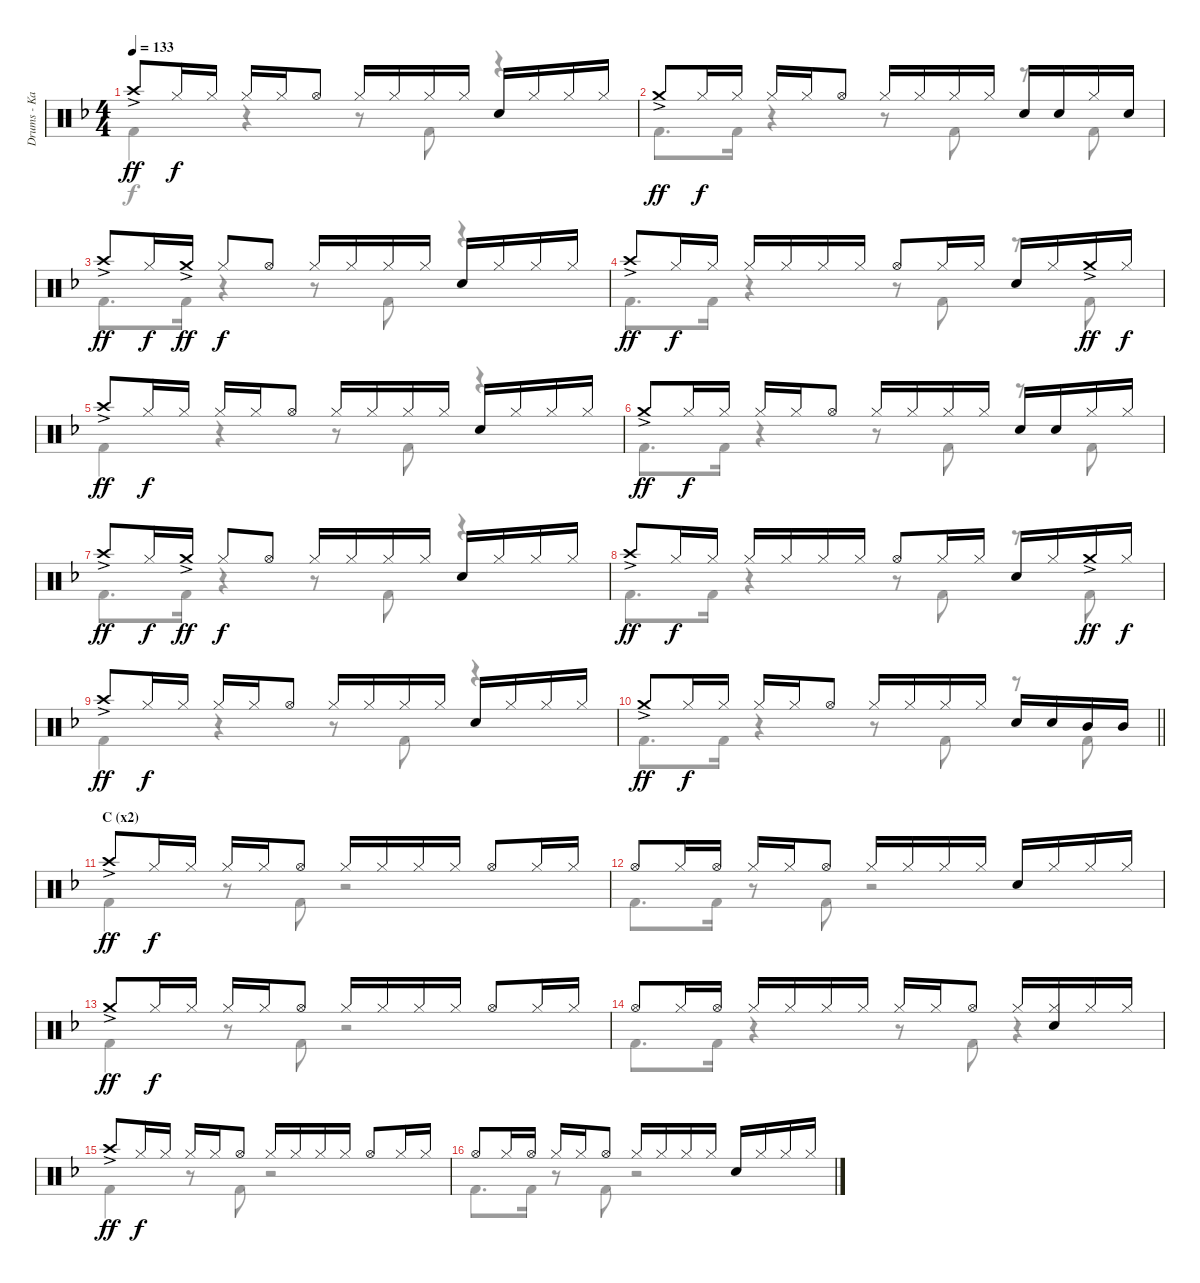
\track ("Drums - Kai" "Drums - Ka") {instrument percussion}
\staff {score}
\articulation defaults
\voice
\ts (4 4)
\tempo 133
\clef neutral
\ks f "Crash high (hit)"{ac}.8{dy ff} "Hi-Hat (closed)".16{dy f} "Hi-Hat (closed)".16 "Hi-Hat (closed)".16 "Hi-Hat (closed)".16 "Hi-Hat (open)".8 "Hi-Hat (closed)".16 "Hi-Hat (closed)".16 "Hi-Hat (closed)".16 "Hi-Hat (closed)".16 "Snare (hit) 2".16 "Hi-Hat (closed)".16 "Hi-Hat (closed)".16 "Hi-Hat (closed)".16
|
"Crash medium (hit)"{ac}.8{dy ff} "Hi-Hat (closed)".16{dy f} "Hi-Hat (closed)".16 "Hi-Hat (closed)".16 "Hi-Hat (closed)".16 "Hi-Hat (open)".8 "Hi-Hat (closed)".16 "Hi-Hat (closed)".16 "Hi-Hat (closed)".16 "Hi-Hat (closed)".16 "Snare (hit) 2".16 "Snare (hit) 2".16 "Hi-Hat (closed)".16 "Snare (hit) 2".16 |
"Crash high (hit)"{ac}.8{dy ff} "Hi-Hat (closed)".16{dy f} "Crash medium (hit)"{ac}.16{dy ff} "Hi-Hat (closed)".8{dy f} "Hi-Hat (open)".8 "Hi-Hat (closed)".16 "Hi-Hat (closed)".16 "Hi-Hat (closed)".16 "Hi-Hat (closed)".16 "Snare (hit) 2".16 "Hi-Hat (closed)".16 "Hi-Hat (closed)".16 "Hi-Hat (closed)".16 |
"Crash high (hit)"{ac}.8{dy ff} "Hi-Hat (closed)".16{dy f} "Hi-Hat (closed)".16 "Hi-Hat (closed)".16 "Hi-Hat (closed)".16 "Hi-Hat (closed)".16 "Hi-Hat (closed)".16 "Hi-Hat (open)".8 "Hi-Hat (closed)".16 "Hi-Hat (closed)".16 "Snare (hit) 2".16 "Hi-Hat (closed)".16 "Crash medium (hit)"{ac}.16{dy ff} "Hi-Hat (closed)".16{dy f} |
"Crash high (hit)"{ac}.8{dy ff} "Hi-Hat (closed)".16{dy f} "Hi-Hat (closed)".16 "Hi-Hat (closed)".16 "Hi-Hat (closed)".16 "Hi-Hat (open)".8 "Hi-Hat (closed)".16 "Hi-Hat (closed)".16 "Hi-Hat (closed)".16 "Hi-Hat (closed)".16 "Snare (hit) 2".16 "Hi-Hat (closed)".16 "Hi-Hat (closed)".16 "Hi-Hat (closed)".16 |
"Crash medium (hit)"{ac}.8{dy ff} "Hi-Hat (closed)".16{dy f} "Hi-Hat (closed)".16 "Hi-Hat (closed)".16 "Hi-Hat (closed)".16 "Hi-Hat (open)".8 "Hi-Hat (closed)".16 "Hi-Hat (closed)".16 "Hi-Hat (closed)".16 "Hi-Hat (closed)".16 "Snare (hit) 2".16 "Snare (hit) 2".16 "Hi-Hat (closed)".16 "Hi-Hat (closed)".16 |
"Crash high (hit)"{ac}.8{dy ff} "Hi-Hat (closed)".16{dy f} "Crash medium (hit)"{ac}.16{dy ff} "Hi-Hat (closed)".8{dy f} "Hi-Hat (open)".8 "Hi-Hat (closed)".16 "Hi-Hat (closed)".16 "Hi-Hat (closed)".16 "Hi-Hat (closed)".16 "Snare (hit) 2".16 "Hi-Hat (closed)".16 "Hi-Hat (closed)".16 "Hi-Hat (closed)".16 |
"Crash high (hit)"{ac}.8{dy ff} "Hi-Hat (closed)".16{dy f} "Hi-Hat (closed)".16 "Hi-Hat (closed)".16 "Hi-Hat (closed)".16 "Hi-Hat (closed)".16 "Hi-Hat (closed)".16 "Hi-Hat (open)".8 "Hi-Hat (closed)".16 "Hi-Hat (closed)".16 "Snare (hit) 2".16 "Hi-Hat (closed)".16 "Crash medium (hit)"{ac}.16{dy ff} "Hi-Hat (closed)".16{dy f} |
"Crash high (hit)"{ac}.8{dy ff} "Hi-Hat (closed)".16{dy f} "Hi-Hat (closed)".16 "Hi-Hat (closed)".16 "Hi-Hat (closed)".16 "Hi-Hat (open)".8 "Hi-Hat (closed)".16 "Hi-Hat (closed)".16 "Hi-Hat (closed)".16 "Hi-Hat (closed)".16 "Snare (hit) 2".16 "Hi-Hat (closed)".16 "Hi-Hat (closed)".16 "Hi-Hat (closed)".16 |
\barLineRight lightlight "Crash medium (hit)"{ac}.8{dy ff} "Hi-Hat (closed)".16{dy f} "Hi-Hat (closed)".16 "Hi-Hat (closed)".16 "Hi-Hat (closed)".16 "Hi-Hat (open)".8 "Hi-Hat (closed)".16 "Hi-Hat (closed)".16 "Hi-Hat (closed)".16 "Hi-Hat (closed)".16 "Snare (hit) 2".16 "Snare (hit) 2".16 "Mid Tom (hit)".16 "Mid Tom (hit)".16
|
\section ("" "C (x2)")
"Crash high (hit)"{ac}.8{dy ff} "Hi-Hat (closed)".16{dy f} "Hi-Hat (closed)".16 "Hi-Hat (closed)".16 "Hi-Hat (closed)".16 "Hi-Hat (open)".8 "Hi-Hat (closed)".16 "Hi-Hat (closed)".16 "Hi-Hat (closed)".16 "Hi-Hat (closed)".16 "Hi-Hat (open)".8 "Hi-Hat (closed)".16 "Hi-Hat (closed)".16 |
"Hi-Hat (open)".8 "Hi-Hat (closed)".16 "Hi-Hat (open)".16 "Hi-Hat (closed)".16 "Hi-Hat (closed)".16 "Hi-Hat (open)".8 "Hi-Hat (closed)".16 "Hi-Hat (closed)".16 "Hi-Hat (closed)".16 "Hi-Hat (closed)".16 "Snare (hit) 2".16 "Hi-Hat (closed)".16 "Hi-Hat (closed)".16 "Hi-Hat (closed)".16 |
"Crash medium (hit)"{ac}.8{dy ff} "Hi-Hat (closed)".16{dy f} "Hi-Hat (closed)".16 "Hi-Hat (closed)".16 "Hi-Hat (closed)".16 "Hi-Hat (open)".8 "Hi-Hat (closed)".16 "Hi-Hat (closed)".16 "Hi-Hat (closed)".16 "Hi-Hat (closed)".16 "Hi-Hat (open)".8 "Hi-Hat (closed)".16 "Hi-Hat (closed)".16 |
"Hi-Hat (open)".8 "Hi-Hat (closed)".16 "Hi-Hat (open)".16 "Hi-Hat (closed)".16 "Hi-Hat (closed)".16 "Hi-Hat (closed)".16 "Hi-Hat (closed)".16 "Hi-Hat (closed)".16 "Hi-Hat (closed)".16 "Hi-Hat (open)".8 "Hi-Hat (closed)".16 ("Hi-Hat (closed)" "Snare (hit) 2").16 "Hi-Hat (closed)".16 "Hi-Hat (closed)".16 |
"Crash high (hit)"{ac}.8{dy ff} "Hi-Hat (closed)".16{dy f} "Hi-Hat (closed)".16 "Hi-Hat (closed)".16 "Hi-Hat (closed)".16 "Hi-Hat (open)".8 "Hi-Hat (closed)".16 "Hi-Hat (closed)".16 "Hi-Hat (closed)".16 "Hi-Hat (closed)".16 "Hi-Hat (open)".8 "Hi-Hat (closed)".16 "Hi-Hat (closed)".16 |
"Hi-Hat (open)".8 "Hi-Hat (closed)".16 "Hi-Hat (open)".16 "Hi-Hat (closed)".16 "Hi-Hat (closed)".16 "Hi-Hat (open)".8 "Hi-Hat (closed)".16 "Hi-Hat (closed)".16 "Hi-Hat (closed)".16 "Hi-Hat (closed)".16 "Snare (hit) 2".16 "Hi-Hat (closed)".16 "Hi-Hat (closed)".16 "Hi-Hat (closed)".16
\voice
\clef neutral
\ottava regular
\simile none
\ks f "Kick (hit) 2".4{dy f}
r.4 r.8 "Kick (hit) 2".8 r.4 |
"Kick (hit) 2".8{d} "Kick (hit) 2".16 r.4 r.8 "Kick (hit) 2".8 r.8 "Kick (hit) 2".8 |
"Kick (hit) 2".8{d} "Kick (hit) 2".16 r.4 r.8 "Kick (hit) 2".8 r.4 |
"Kick (hit) 2".8{d} "Kick (hit) 2".16 r.4 r.8 "Kick (hit) 2".8 r.8 "Kick (hit) 2".8 |
"Kick (hit) 2".4 r.4 r.8 "Kick (hit) 2".8 r.4 |
"Kick (hit) 2".8{d} "Kick (hit) 2".16 r.4 r.8 "Kick (hit) 2".8 r.8 "Kick (hit) 2".8 |
"Kick (hit) 2".8{d} "Kick (hit) 2".16 r.4 r.8 "Kick (hit) 2".8 r.4 |
"Kick (hit) 2".8{d} "Kick (hit) 2".16 r.4 r.8 "Kick (hit) 2".8 r.8 "Kick (hit) 2".8 |
"Kick (hit) 2".4 r.4 r.8 "Kick (hit) 2".8 r.4 |
\barLineRight lightlight "Kick (hit) 2".8{d} "Kick (hit) 2".16
r.4 r.8 "Kick (hit) 2".8 r.8 "Kick (hit) 2".8 |
"Kick (hit) 2".4 r.8 "Kick (hit) 2".8 r.2 |
"Kick (hit) 2".8{d} "Kick (hit) 2".16 r.8 "Kick (hit) 2".8 r.2 |
"Kick (hit) 2".4 r.8 "Kick (hit) 2".8 r.2 |
"Kick (hit) 2".8{d} "Kick (hit) 2".16 r.4 r.8 "Kick (hit) 2".8 r.4 |
"Kick (hit) 2".4 r.8 "Kick (hit) 2".8 r.2 |
"Kick (hit) 2".8{d} "Kick (hit) 2".16 r.8 "Kick (hit) 2".8 r.2
